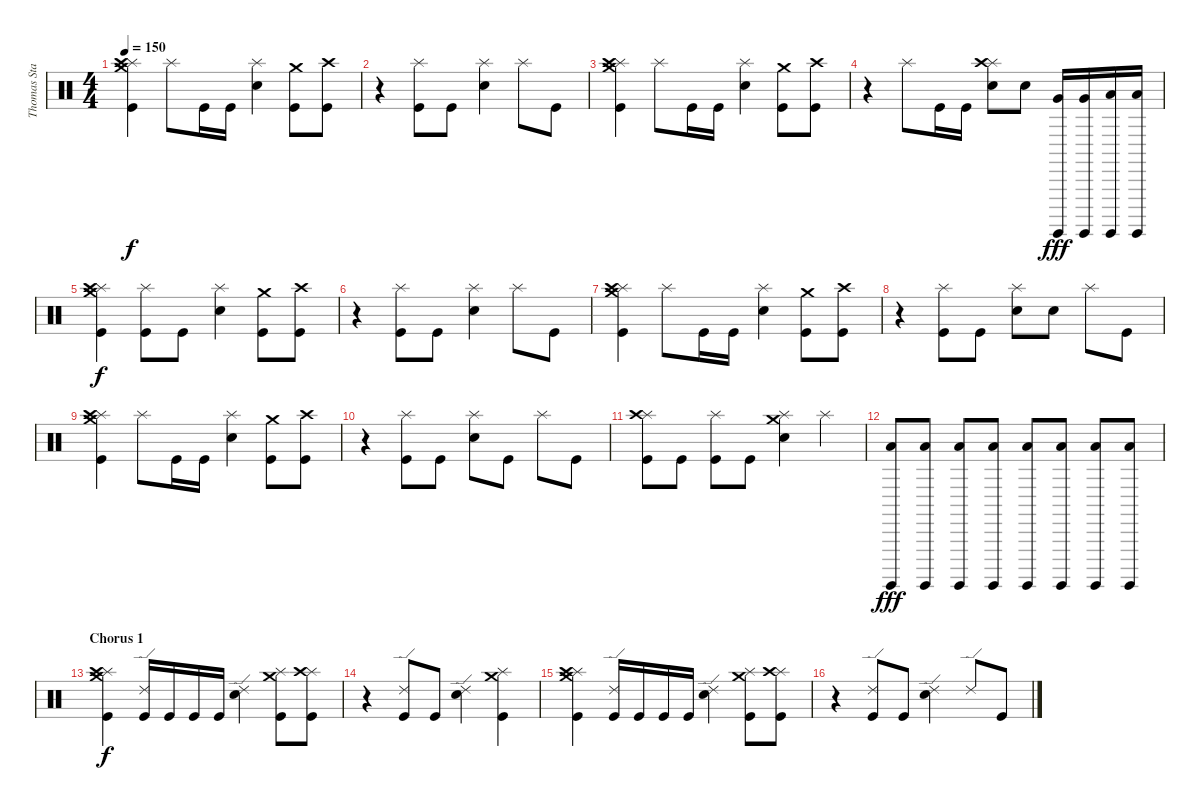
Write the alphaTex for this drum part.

\track ("Thomas Stauch" "Thomas Sta") {instrument percussion}
\staff {score}
\articulation defaults
\ts (4 4)
\tempo 150
\clef neutral
\ks c
("Crash medium (hit)" "Splash (hit)" "Crash high (hit)" "Kick (hit)").4{dy f} "Splash (hit)".8 "Kick (hit)".16 "Kick (hit)".16 ("Splash (hit)" "Electric Snare (hit)").4 ("Crash medium (hit)" "Kick (hit)").8 ("Crash high (hit)" "Kick (hit)").8 |
r.4 ("Splash (hit)" "Kick (hit)").8 "Kick (hit)".8 ("Splash (hit)" "Electric Snare (hit)").4 "Splash (hit)".8 "Kick (hit)".8 |
("Crash medium (hit)" "Splash (hit)" "Crash high (hit)" "Kick (hit)").4 "Splash (hit)".8 "Kick (hit)".16 "Kick (hit)".16 ("Splash (hit)" "Electric Snare (hit)").4 ("Crash medium (hit)" "Kick (hit)").8 ("Crash high (hit)" "Kick (hit)").8 |
r.4 "Splash (hit)".8 "Kick (hit)".16 "Kick (hit)".16 ("Splash (hit)" "Crash high (hit)" "Electric Snare (hit)").8 "Electric Snare (hit)".8 ("Surdo (hit)" "Very Low Tom (hit)").16{dy fff} ("Surdo (hit)" "Very Low Tom (hit)").16 ("Surdo (hit)" "Low Floor Tom (hit)").16 ("Surdo (hit)" "Low Floor Tom (hit)").16 |
("Crash medium (hit)" "Splash (hit)" "Crash high (hit)" "Kick (hit)").4{dy f} ("Splash (hit)" "Kick (hit)").8 "Kick (hit)".8 ("Splash (hit)" "Electric Snare (hit)").4 ("Crash medium (hit)" "Kick (hit)").8 ("Crash high (hit)" "Kick (hit)").8 |
r.4 ("Splash (hit)" "Kick (hit)").8 "Kick (hit)".8 ("Splash (hit)" "Electric Snare (hit)").4 "Splash (hit)".8 "Kick (hit)".8 |
("Crash medium (hit)" "Splash (hit)" "Crash high (hit)" "Kick (hit)").4 "Splash (hit)".8 "Kick (hit)".16 "Kick (hit)".16 ("Splash (hit)" "Electric Snare (hit)").4 ("Crash medium (hit)" "Kick (hit)").8 ("Crash high (hit)" "Kick (hit)").8 |
r.4 ("Splash (hit)" "Kick (hit)").8 "Kick (hit)".8 ("Splash (hit)" "Electric Snare (hit)").8 "Electric Snare (hit)".8 "Splash (hit)".8 "Kick (hit)".8 |
("Crash medium (hit)" "Splash (hit)" "Crash high (hit)" "Kick (hit)").4 "Splash (hit)".8 "Kick (hit)".16 "Kick (hit)".16 ("Splash (hit)" "Electric Snare (hit)").4 ("Crash medium (hit)" "Kick (hit)").8 ("Crash high (hit)" "Kick (hit)").8 |
r.4 ("Splash (hit)" "Kick (hit)").8 "Kick (hit)".8 ("Splash (hit)" "Electric Snare (hit)").8 "Kick (hit)".8 "Splash (hit)".8 "Kick (hit)".8 |
("Splash (hit)" "Crash high (hit)" "Kick (hit)").8 "Kick (hit)".8 ("Splash (hit)" "Kick (hit)").8 "Kick (hit)".8 ("Crash medium (hit)" "Splash (hit)" "Electric Snare (hit)").4 "Splash (hit)".4 |
("Surdo (hit)" "Low Floor Tom (hit)").8{dy fff} ("Surdo (hit)" "Low Floor Tom (hit)").8 ("Surdo (hit)" "Low Floor Tom (hit)").8 ("Surdo (hit)" "Low Floor Tom (hit)").8 ("Surdo (hit)" "Low Floor Tom (hit)").8 ("Surdo (hit)" "Low Floor Tom (hit)").8 ("Surdo (hit)" "Low Floor Tom (hit)").8 ("Surdo (hit)" "Low Floor Tom (hit)").8 |
\section ("" "Chorus 1")
("Crash medium (hit)" "Splash (hit)" "Crash high (hit)" "Kick (hit)").4{dy f} ("Ride (edge) 2" "Kick (hit)").16 "Kick (hit)".16 "Kick (hit)".16 "Kick (hit)".16 ("Ride (edge) 2" "Electric Snare (hit)").4 ("Crash medium (hit)" "Splash (hit)" "Kick (hit)").8 ("Splash (hit)" "Crash high (hit)" "Kick (hit)").8 |
r.4 ("Ride (edge) 2" "Kick (hit)").8 "Kick (hit)".8 ("Ride (edge) 2" "Electric Snare (hit)").4 ("Crash medium (hit)" "Splash (hit)" "Kick (hit)").4 |
("Crash medium (hit)" "Splash (hit)" "Crash high (hit)" "Kick (hit)").4 ("Ride (edge) 2" "Kick (hit)").16 "Kick (hit)".16 "Kick (hit)".16 "Kick (hit)".16 ("Ride (edge) 2" "Electric Snare (hit)").4 ("Crash medium (hit)" "Splash (hit)" "Kick (hit)").8 ("Splash (hit)" "Crash high (hit)" "Kick (hit)").8 |
r.4 ("Ride (edge) 2" "Kick (hit)").8 "Kick (hit)".8 ("Ride (edge) 2" "Electric Snare (hit)").4 "Ride (edge) 2".8 "Kick (hit)".8
